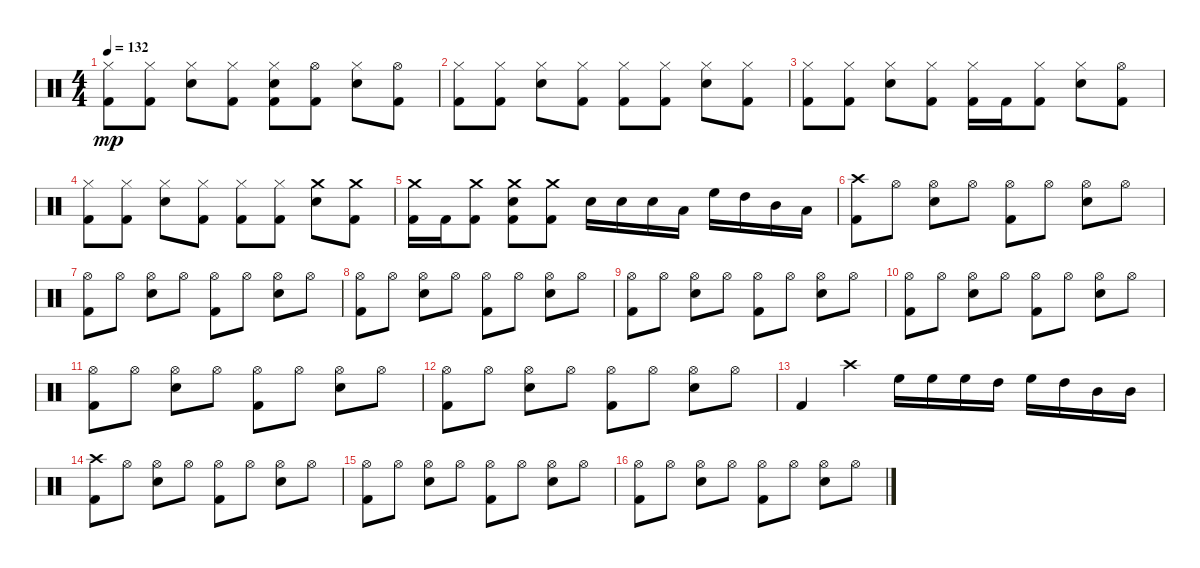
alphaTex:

\track "" {instrument percussion}
\staff {score}
\articulation defaults
\ts (4 4)
\tempo 132
\clef neutral
\ks c
("Hi-Hat (closed)" "Kick (hit) 2").8{dy mp} ("Hi-Hat (closed)" "Kick (hit) 2").8 ("Snare (hit) 2" "Hi-Hat (closed)").8 ("Hi-Hat (closed)" "Kick (hit) 2").8 ("Snare (hit) 2" "Hi-Hat (closed)" "Kick (hit) 2").8 ("Hi-Hat (open)" "Kick (hit) 2").8 ("Snare (hit) 2" "Hi-Hat (closed)").8 ("Hi-Hat (open)" "Kick (hit) 2").8 |
("Hi-Hat (closed)" "Kick (hit) 2").8 ("Hi-Hat (closed)" "Kick (hit) 2").8 ("Snare (hit) 2" "Hi-Hat (closed)").8 ("Hi-Hat (closed)" "Kick (hit) 2").8 ("Hi-Hat (closed)" "Kick (hit) 2").8 ("Hi-Hat (closed)" "Kick (hit) 2").8 ("Snare (hit) 2" "Hi-Hat (closed)").8 ("Hi-Hat (closed)" "Kick (hit) 2").8 |
("Hi-Hat (closed)" "Kick (hit) 2").8 ("Hi-Hat (closed)" "Kick (hit) 2").8 ("Snare (hit) 2" "Hi-Hat (closed)").8 ("Hi-Hat (closed)" "Kick (hit) 2").8 ("Kick (hit) 2" "Hi-Hat (closed)").16 "Kick (hit) 2".16 ("Kick (hit) 2" "Hi-Hat (closed)").8 ("Snare (hit) 2" "Hi-Hat (closed)").8 ("Hi-Hat (open)" "Kick (hit) 2").8 |
("Hi-Hat (closed)" "Kick (hit) 2").8 ("Hi-Hat (closed)" "Kick (hit) 2").8 ("Snare (hit) 2" "Hi-Hat (closed)").8 ("Hi-Hat (closed)" "Kick (hit) 2").8 ("Hi-Hat (closed)" "Kick (hit) 2").8 ("Hi-Hat (closed)" "Kick (hit) 2").8 ("Snare (hit) 2" "Crash medium (hit)").8 ("Crash medium (hit)" "Kick (hit) 2").8 |
("Kick (hit) 2" "Crash medium (hit)").16 "Kick (hit) 2".16 ("Kick (hit) 2" "Crash medium (hit)").8 ("Snare (hit) 2" "Crash medium (hit)" "Kick (hit) 2").8 ("Crash medium (hit)" "Kick (hit) 2").8 "Snare (hit) 2".16 "Snare (hit) 2".16 "Snare (hit) 2".16 "Low Tom (hit)".16 "High Floor Tom (hit)".16 "High Tom (hit)".16 "Mid Tom (hit)".16 "Low Tom (hit)".16 |
("Crash high (hit)" "Kick (hit) 2").8 "Hi-Hat (open)".8 ("Snare (hit) 2" "Hi-Hat (open)").8 "Hi-Hat (open)".8 ("Hi-Hat (open)" "Kick (hit) 2").8 "Hi-Hat (open)".8 ("Snare (hit) 2" "Hi-Hat (open)").8 "Hi-Hat (open)".8 |
("Hi-Hat (open)" "Kick (hit) 2").8 "Hi-Hat (open)".8 ("Snare (hit) 2" "Hi-Hat (open)").8 "Hi-Hat (open)".8 ("Hi-Hat (open)" "Kick (hit) 2").8 "Hi-Hat (open)".8 ("Snare (hit) 2" "Hi-Hat (open)").8 "Hi-Hat (open)".8 |
("Hi-Hat (open)" "Kick (hit) 2").8 "Hi-Hat (open)".8 ("Snare (hit) 2" "Hi-Hat (open)").8 "Hi-Hat (open)".8 ("Hi-Hat (open)" "Kick (hit) 2").8 "Hi-Hat (open)".8 ("Snare (hit) 2" "Hi-Hat (open)").8 "Hi-Hat (open)".8 |
("Hi-Hat (open)" "Kick (hit) 2").8 "Hi-Hat (open)".8 ("Snare (hit) 2" "Hi-Hat (open)").8 "Hi-Hat (open)".8 ("Hi-Hat (open)" "Kick (hit) 2").8 "Hi-Hat (open)".8 ("Snare (hit) 2" "Hi-Hat (open)").8 "Hi-Hat (open)".8 |
("Hi-Hat (open)" "Kick (hit) 2").8 "Hi-Hat (open)".8 ("Snare (hit) 2" "Hi-Hat (open)").8 "Hi-Hat (open)".8 ("Hi-Hat (open)" "Kick (hit) 2").8 "Hi-Hat (open)".8 ("Snare (hit) 2" "Hi-Hat (open)").8 "Hi-Hat (open)".8 |
("Hi-Hat (open)" "Kick (hit) 2").8 "Hi-Hat (open)".8 ("Snare (hit) 2" "Hi-Hat (open)").8 "Hi-Hat (open)".8 ("Hi-Hat (open)" "Kick (hit) 2").8 "Hi-Hat (open)".8 ("Snare (hit) 2" "Hi-Hat (open)").8 "Hi-Hat (open)".8 |
("Hi-Hat (open)" "Kick (hit) 2").8 "Hi-Hat (open)".8 ("Snare (hit) 2" "Hi-Hat (open)").8 "Hi-Hat (open)".8 ("Hi-Hat (open)" "Kick (hit) 2").8 "Hi-Hat (open)".8 ("Snare (hit) 2" "Hi-Hat (open)").8 "Hi-Hat (open)".8 |
"Kick (hit) 2".4 "Crash high (hit)".4 "High Floor Tom (hit)".16 "High Floor Tom (hit)".16 "High Floor Tom (hit)".16 "High Tom (hit)".16 "High Floor Tom (hit)".16 "High Tom (hit)".16 "Mid Tom (hit)".16 "Mid Tom (hit)".16 |
("Crash high (hit)" "Kick (hit) 2").8 "Hi-Hat (open)".8 ("Snare (hit) 2" "Hi-Hat (open)").8 "Hi-Hat (open)".8 ("Hi-Hat (open)" "Kick (hit) 2").8 "Hi-Hat (open)".8 ("Snare (hit) 2" "Hi-Hat (open)").8 "Hi-Hat (open)".8 |
("Hi-Hat (open)" "Kick (hit) 2").8 "Hi-Hat (open)".8 ("Snare (hit) 2" "Hi-Hat (open)").8 "Hi-Hat (open)".8 ("Hi-Hat (open)" "Kick (hit) 2").8 "Hi-Hat (open)".8 ("Snare (hit) 2" "Hi-Hat (open)").8 "Hi-Hat (open)".8 |
("Hi-Hat (open)" "Kick (hit) 2").8 "Hi-Hat (open)".8 ("Snare (hit) 2" "Hi-Hat (open)").8 "Hi-Hat (open)".8 ("Hi-Hat (open)" "Kick (hit) 2").8 "Hi-Hat (open)".8 ("Snare (hit) 2" "Hi-Hat (open)").8 "Hi-Hat (open)".8
